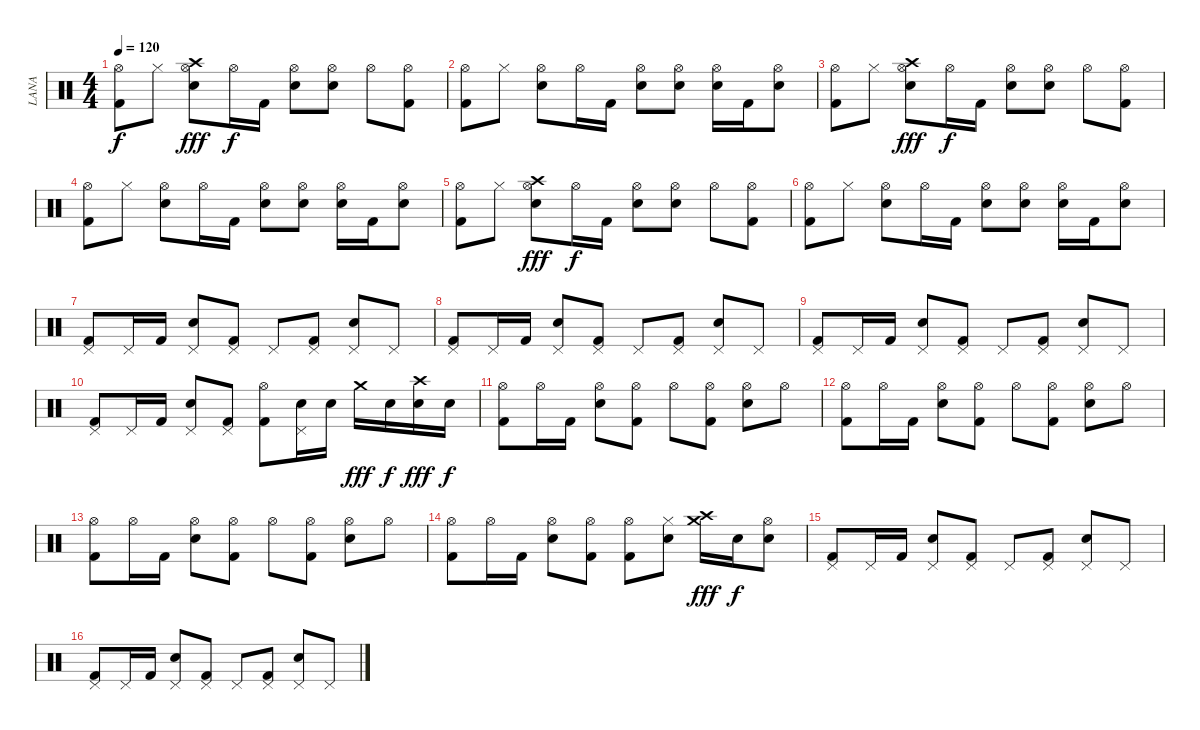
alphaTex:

\track ("LANA" "LANA") {instrument percussion}
\staff {score}
\articulation defaults
\ts (4 4)
\tempo 120
\clef neutral
\ks c
("Hi-Hat (open)" "Kick (hit) 2").8{dy f} "Hi-Hat (closed)".8 ("Crash high (hit)" "Hi-Hat (open)" "Electric Snare (hit)").8{dy fff} "Hi-Hat (open)".16{dy f} "Kick (hit) 2".16 ("Hi-Hat (open)" "Electric Snare (hit)").8 ("Hi-Hat (open)" "Electric Snare (hit)").8 "Hi-Hat (open)".8 ("Hi-Hat (open)" "Kick (hit) 2").8 |
("Hi-Hat (open)" "Kick (hit) 2").8 "Hi-Hat (closed)".8 ("Hi-Hat (open)" "Electric Snare (hit)").8 "Hi-Hat (open)".16 "Kick (hit) 2".16 ("Hi-Hat (open)" "Electric Snare (hit)").8 ("Hi-Hat (open)" "Electric Snare (hit)").8 ("Hi-Hat (open)" "Electric Snare (hit)").16 "Kick (hit) 2".16 ("Hi-Hat (open)" "Electric Snare (hit)").8 |
("Hi-Hat (open)" "Kick (hit) 2").8 "Hi-Hat (closed)".8 ("Crash high (hit)" "Hi-Hat (open)" "Electric Snare (hit)").8{dy fff} "Hi-Hat (open)".16{dy f} "Kick (hit) 2".16 ("Hi-Hat (open)" "Electric Snare (hit)").8 ("Hi-Hat (open)" "Electric Snare (hit)").8 "Hi-Hat (open)".8 ("Hi-Hat (open)" "Kick (hit) 2").8 |
("Hi-Hat (open)" "Kick (hit) 2").8 "Hi-Hat (closed)".8 ("Hi-Hat (open)" "Electric Snare (hit)").8 "Hi-Hat (open)".16 "Kick (hit) 2".16 ("Hi-Hat (open)" "Electric Snare (hit)").8 ("Hi-Hat (open)" "Electric Snare (hit)").8 ("Hi-Hat (open)" "Electric Snare (hit)").16 "Kick (hit) 2".16 ("Hi-Hat (open)" "Electric Snare (hit)").8 |
("Hi-Hat (open)" "Kick (hit) 2").8 "Hi-Hat (closed)".8 ("Crash high (hit)" "Hi-Hat (open)" "Electric Snare (hit)").8{dy fff} "Hi-Hat (open)".16{dy f} "Kick (hit) 2".16 ("Hi-Hat (open)" "Electric Snare (hit)").8 ("Hi-Hat (open)" "Electric Snare (hit)").8 "Hi-Hat (open)".8 ("Hi-Hat (open)" "Kick (hit) 2").8 |
("Hi-Hat (open)" "Kick (hit) 2").8 "Hi-Hat (closed)".8 ("Hi-Hat (open)" "Electric Snare (hit)").8 "Hi-Hat (open)".16 "Kick (hit) 2".16 ("Hi-Hat (open)" "Electric Snare (hit)").8 ("Hi-Hat (open)" "Electric Snare (hit)").8 ("Hi-Hat (open)" "Electric Snare (hit)").16 "Kick (hit) 2".16 ("Hi-Hat (open)" "Electric Snare (hit)").8 |
("Pedal Hi-Hat (hit)" "Kick (hit) 2").8 "Pedal Hi-Hat (hit)".16 "Kick (hit) 2".16 ("Pedal Hi-Hat (hit)" "Electric Snare (hit)").8 ("Pedal Hi-Hat (hit)" "Kick (hit) 2").8 "Pedal Hi-Hat (hit)".8 ("Pedal Hi-Hat (hit)" "Kick (hit) 2").8 ("Pedal Hi-Hat (hit)" "Electric Snare (hit)").8 "Pedal Hi-Hat (hit)".8 |
("Pedal Hi-Hat (hit)" "Kick (hit) 2").8 "Pedal Hi-Hat (hit)".16 "Kick (hit) 2".16 ("Pedal Hi-Hat (hit)" "Electric Snare (hit)").8 ("Pedal Hi-Hat (hit)" "Kick (hit) 2").8 "Pedal Hi-Hat (hit)".8 ("Pedal Hi-Hat (hit)" "Kick (hit) 2").8 ("Pedal Hi-Hat (hit)" "Electric Snare (hit)").8 "Pedal Hi-Hat (hit)".8 |
("Pedal Hi-Hat (hit)" "Kick (hit) 2").8 "Pedal Hi-Hat (hit)".16 "Kick (hit) 2".16 ("Pedal Hi-Hat (hit)" "Electric Snare (hit)").8 ("Pedal Hi-Hat (hit)" "Kick (hit) 2").8 "Pedal Hi-Hat (hit)".8 ("Pedal Hi-Hat (hit)" "Kick (hit) 2").8 ("Pedal Hi-Hat (hit)" "Electric Snare (hit)").8 "Pedal Hi-Hat (hit)".8 |
("Pedal Hi-Hat (hit)" "Kick (hit) 2").8 "Pedal Hi-Hat (hit)".16 "Kick (hit) 2".16 ("Pedal Hi-Hat (hit)" "Electric Snare (hit)").8 ("Pedal Hi-Hat (hit)" "Kick (hit) 2").8 ("Hi-Hat (open)" "Kick (hit) 2").8 ("Pedal Hi-Hat (hit)" "Electric Snare (hit)").16 "Electric Snare (hit)".16 "Crash medium (hit)".16{dy fff} "Electric Snare (hit)".16{dy f} ("Crash high (hit)" "Electric Snare (hit)").16{dy fff} "Electric Snare (hit)".16{dy f} |
("Hi-Hat (open)" "Kick (hit) 2").8 "Hi-Hat (open)".16 "Kick (hit) 2".16 ("Hi-Hat (open)" "Electric Snare (hit)").8 ("Hi-Hat (open)" "Kick (hit) 2").8 "Hi-Hat (open)".8 ("Hi-Hat (open)" "Kick (hit) 2").8 ("Hi-Hat (open)" "Electric Snare (hit)").8 "Hi-Hat (open)".8 |
("Hi-Hat (open)" "Kick (hit) 2").8 "Hi-Hat (open)".16 "Kick (hit) 2".16 ("Hi-Hat (open)" "Electric Snare (hit)").8 ("Hi-Hat (open)" "Kick (hit) 2").8 "Hi-Hat (open)".8 ("Hi-Hat (open)" "Kick (hit) 2").8 ("Hi-Hat (open)" "Electric Snare (hit)").8 "Hi-Hat (open)".8 |
("Hi-Hat (open)" "Kick (hit) 2").8 "Hi-Hat (open)".16 "Kick (hit) 2".16 ("Hi-Hat (open)" "Electric Snare (hit)").8 ("Hi-Hat (open)" "Kick (hit) 2").8 "Hi-Hat (open)".8 ("Hi-Hat (open)" "Kick (hit) 2").8 ("Hi-Hat (open)" "Electric Snare (hit)").8 "Hi-Hat (open)".8 |
("Hi-Hat (open)" "Kick (hit) 2").8 "Hi-Hat (open)".16 "Kick (hit) 2".16 ("Hi-Hat (open)" "Electric Snare (hit)").8 ("Hi-Hat (open)" "Kick (hit) 2").8 ("Hi-Hat (open)" "Kick (hit) 2").8 ("Hi-Hat (closed)" "Electric Snare (hit)").8 ("Crash high (hit)" "Crash medium (hit)").16{dy fff} "Electric Snare (hit)".16{dy f} ("Hi-Hat (open)" "Electric Snare (hit)").8 |
("Pedal Hi-Hat (hit)" "Kick (hit) 2").8 "Pedal Hi-Hat (hit)".16 "Kick (hit) 2".16 ("Pedal Hi-Hat (hit)" "Electric Snare (hit)").8 ("Pedal Hi-Hat (hit)" "Kick (hit) 2").8 "Pedal Hi-Hat (hit)".8 ("Pedal Hi-Hat (hit)" "Kick (hit) 2").8 ("Pedal Hi-Hat (hit)" "Electric Snare (hit)").8 "Pedal Hi-Hat (hit)".8 |
("Pedal Hi-Hat (hit)" "Kick (hit) 2").8 "Pedal Hi-Hat (hit)".16 "Kick (hit) 2".16 ("Pedal Hi-Hat (hit)" "Electric Snare (hit)").8 ("Pedal Hi-Hat (hit)" "Kick (hit) 2").8 "Pedal Hi-Hat (hit)".8 ("Pedal Hi-Hat (hit)" "Kick (hit) 2").8 ("Pedal Hi-Hat (hit)" "Electric Snare (hit)").8 "Pedal Hi-Hat (hit)".8
